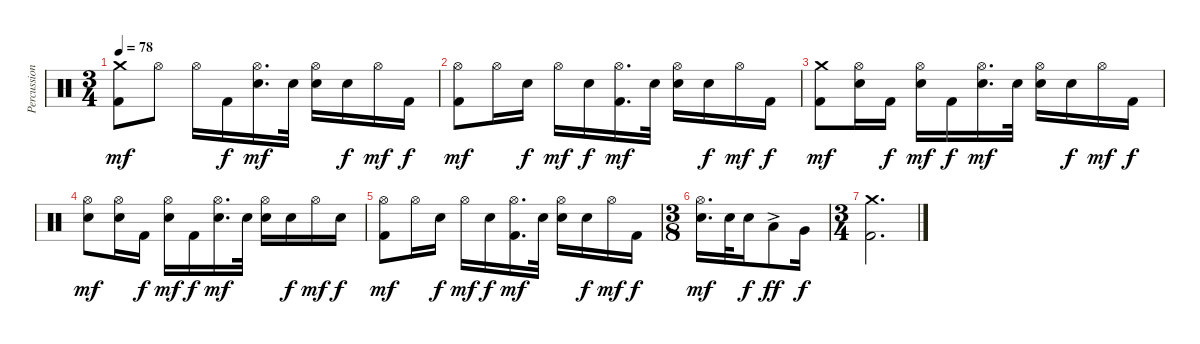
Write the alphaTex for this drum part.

\track ("Percussion" "Percussion") {instrument percussion}
\staff {score}
\articulation defaults
\ts (3 4)
\tempo 78
\clef neutral
\ks c
("Crash medium (hit)" "Kick (hit) 2").8{dy mf} "Hi-Hat (open)".8 "Hi-Hat (open)".16 "Kick (hit) 2".16{dy f} ("Hi-Hat (open)" "Electric Snare (hit)").16{d dy mf} "Electric Snare (hit)".32 ("Hi-Hat (open)" "Electric Snare (hit)").16 "Electric Snare (hit)".16{dy f} "Hi-Hat (open)".16{dy mf} "Kick (hit) 2".16{dy f} |
("Hi-Hat (open)" "Kick (hit) 2").8{dy mf} "Hi-Hat (open)".16 "Electric Snare (hit)".16{dy f} "Hi-Hat (open)".16{dy mf} "Electric Snare (hit)".16{dy f} ("Hi-Hat (open)" "Kick (hit) 2").16{d dy mf} "Electric Snare (hit)".32 ("Hi-Hat (open)" "Electric Snare (hit)").16 "Electric Snare (hit)".16{dy f} "Hi-Hat (open)".16{dy mf} "Kick (hit) 2".16{dy f} |
("Crash medium (hit)" "Kick (hit) 2").8{dy mf} ("Hi-Hat (open)" "Electric Snare (hit)").16 "Kick (hit) 2".16{dy f} ("Hi-Hat (open)" "Electric Snare (hit)").16{dy mf} "Kick (hit) 2".16{dy f} ("Hi-Hat (open)" "Electric Snare (hit)").16{d dy mf} "Electric Snare (hit)".32 ("Hi-Hat (open)" "Electric Snare (hit)").16 "Electric Snare (hit)".16{dy f} "Hi-Hat (open)".16{dy mf} "Kick (hit) 2".16{dy f} |
("Hi-Hat (open)" "Electric Snare (hit)").8{dy mf} ("Hi-Hat (open)" "Electric Snare (hit)").16 "Kick (hit) 2".16{dy f} ("Hi-Hat (open)" "Electric Snare (hit)").16{dy mf} "Kick (hit) 2".16{dy f} ("Hi-Hat (open)" "Electric Snare (hit)").16{d dy mf} "Electric Snare (hit)".32 ("Hi-Hat (open)" "Electric Snare (hit)").16 "Electric Snare (hit)".16{dy f} "Hi-Hat (open)".16{dy mf} "Electric Snare (hit)".16{dy f} |
("Hi-Hat (open)" "Kick (hit) 2").8{dy mf} "Hi-Hat (open)".16 "Electric Snare (hit)".16{dy f} "Hi-Hat (open)".16{dy mf} "Electric Snare (hit)".16{dy f} ("Hi-Hat (open)" "Kick (hit) 2").16{d dy mf} "Electric Snare (hit)".32 ("Hi-Hat (open)" "Electric Snare (hit)").16 "Electric Snare (hit)".16{dy f} "Hi-Hat (open)".16{dy mf} "Kick (hit) 2".16{dy f} |
\ts (3 8)
("Hi-Hat (open)" "Electric Snare (hit)").16{d dy mf} "Electric Snare (hit)".32 "Electric Snare (hit)".16{dy f} "Low Tom (hit)"{ac}.8{dy ff} "Very Low Tom (hit)".16{dy f} |
\ts (3 4)
("Crash medium (hit)" "Kick (hit) 2").2{d}
